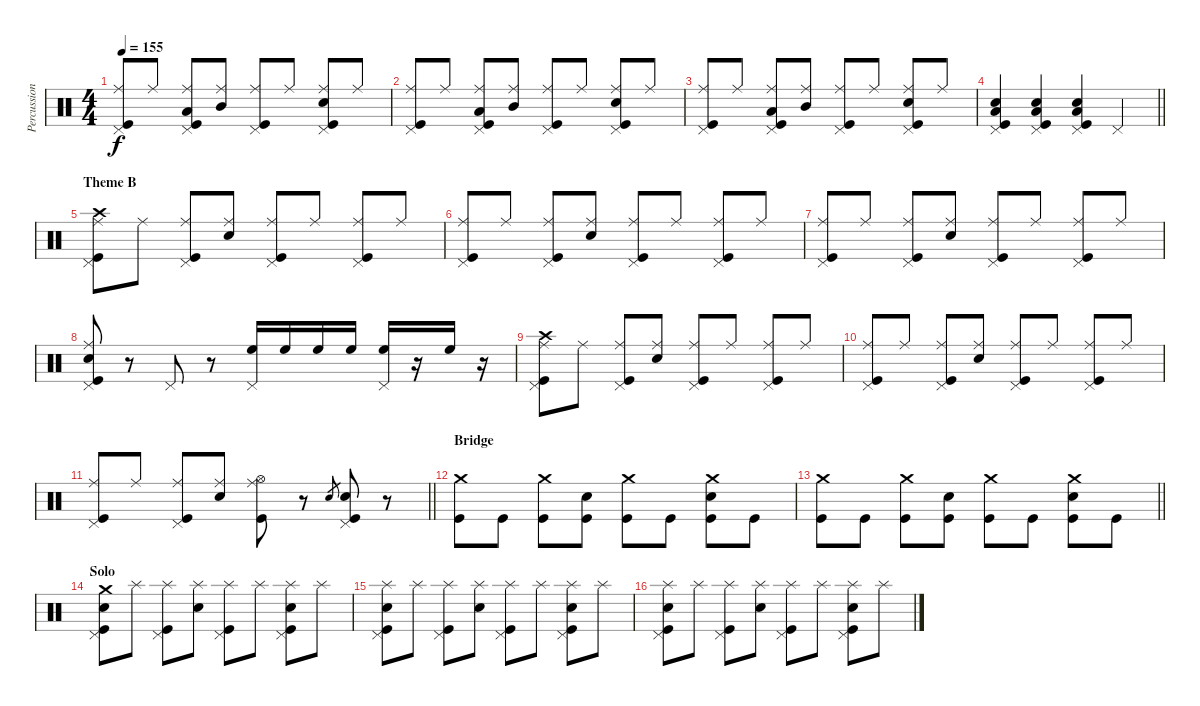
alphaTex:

\track ("Percussion" "Percussion") {instrument percussion}
\staff {score}
\articulation defaults
\ts (4 4)
\tempo 155
\clef neutral
\ks c
("Pedal Hi-Hat (hit)" "Ride (middle)" "Kick (hit)").8{dy f} "Ride (middle)".8 ("Pedal Hi-Hat (hit)" "Ride (middle)" "Low Tom (hit)" "Kick (hit)").8 ("Ride (middle)" "Mid Tom (hit)").8 ("Pedal Hi-Hat (hit)" "Ride (middle)" "Kick (hit)").8 "Ride (middle)".8 ("Pedal Hi-Hat (hit)" "Ride (middle)" "Electric Snare (hit)" "Kick (hit)").8 "Ride (middle)".8 |
("Pedal Hi-Hat (hit)" "Ride (middle)" "Kick (hit)").8 "Ride (middle)".8 ("Pedal Hi-Hat (hit)" "Ride (middle)" "Low Tom (hit)" "Kick (hit)").8 ("Ride (middle)" "Mid Tom (hit)").8 ("Pedal Hi-Hat (hit)" "Ride (middle)" "Kick (hit)").8 "Ride (middle)".8 ("Pedal Hi-Hat (hit)" "Ride (middle)" "Electric Snare (hit)" "Kick (hit)").8 "Ride (middle)".8 |
("Pedal Hi-Hat (hit)" "Ride (middle)" "Kick (hit)").8 "Ride (middle)".8 ("Pedal Hi-Hat (hit)" "Ride (middle)" "Low Tom (hit)" "Kick (hit)").8 ("Ride (middle)" "Mid Tom (hit)").8 ("Pedal Hi-Hat (hit)" "Ride (middle)" "Kick (hit)").8 "Ride (middle)".8 ("Pedal Hi-Hat (hit)" "Ride (middle)" "Electric Snare (hit)" "Kick (hit)").8 "Ride (middle)".8 |
\barLineRight lightlight
("Pedal Hi-Hat (hit)" "Electric Snare (hit)" "Low Tom (hit)" "Kick (hit)").4 ("Pedal Hi-Hat (hit)" "Electric Snare (hit)" "Low Tom (hit)" "Kick (hit)").4 ("Pedal Hi-Hat (hit)" "Electric Snare (hit)" "Low Tom (hit)" "Kick (hit)").4 "Pedal Hi-Hat (hit)".4 |
\section ("" "Theme B")
("Pedal Hi-Hat (hit)" "Ride (middle)" "Crash high (hit)" "Kick (hit)").8 "Ride (middle)".8 ("Pedal Hi-Hat (hit)" "Ride (middle)" "Kick (hit)").8 ("Ride (middle)" "Electric Snare (hit)").8 ("Pedal Hi-Hat (hit)" "Ride (middle)" "Kick (hit)").8 "Ride (middle)".8 ("Pedal Hi-Hat (hit)" "Ride (middle)" "Kick (hit)").8 "Ride (middle)".8 |
("Pedal Hi-Hat (hit)" "Ride (middle)" "Kick (hit)").8 "Ride (middle)".8 ("Pedal Hi-Hat (hit)" "Ride (middle)" "Kick (hit)").8 ("Ride (middle)" "Electric Snare (hit)").8 ("Pedal Hi-Hat (hit)" "Ride (middle)" "Kick (hit)").8 "Ride (middle)".8 ("Pedal Hi-Hat (hit)" "Ride (middle)" "Kick (hit)").8 "Ride (middle)".8 |
("Pedal Hi-Hat (hit)" "Ride (middle)" "Kick (hit)").8 "Ride (middle)".8 ("Pedal Hi-Hat (hit)" "Ride (middle)" "Kick (hit)").8 ("Ride (middle)" "Electric Snare (hit)").8 ("Pedal Hi-Hat (hit)" "Ride (middle)" "Kick (hit)").8 "Ride (middle)".8 ("Pedal Hi-Hat (hit)" "Ride (middle)" "Kick (hit)").8 "Ride (middle)".8 |
("Pedal Hi-Hat (hit)" "Ride (middle)" "Electric Snare (hit)" "Kick (hit)").8 r.8 "Pedal Hi-Hat (hit)".8 r.8 ("Pedal Hi-Hat (hit)" "High Floor Tom (hit)").16 "High Floor Tom (hit)".16 "High Floor Tom (hit)".16 "High Floor Tom (hit)".16 ("Pedal Hi-Hat (hit)" "High Floor Tom (hit)").16 r.16 "High Floor Tom (hit)".16 r.16 |
("Pedal Hi-Hat (hit)" "Ride (middle)" "Crash high (hit)" "Kick (hit)").8 "Ride (middle)".8 ("Pedal Hi-Hat (hit)" "Ride (middle)" "Kick (hit)").8 ("Ride (middle)" "Electric Snare (hit)").8 ("Pedal Hi-Hat (hit)" "Ride (middle)" "Kick (hit)").8 "Ride (middle)".8 ("Pedal Hi-Hat (hit)" "Ride (middle)" "Kick (hit)").8 "Ride (middle)".8 |
("Pedal Hi-Hat (hit)" "Ride (middle)" "Kick (hit)").8 "Ride (middle)".8 ("Pedal Hi-Hat (hit)" "Ride (middle)" "Kick (hit)").8 ("Ride (middle)" "Electric Snare (hit)").8 ("Pedal Hi-Hat (hit)" "Ride (middle)" "Kick (hit)").8 "Ride (middle)".8 ("Pedal Hi-Hat (hit)" "Ride (middle)" "Kick (hit)").8 "Ride (middle)".8 |
\barLineRight lightlight
("Pedal Hi-Hat (hit)" "Ride (middle)" "Kick (hit)").8 "Ride (middle)".8 ("Pedal Hi-Hat (hit)" "Ride (middle)" "Kick (hit)").8 ("Ride (middle)" "Electric Snare (hit)").8 ("Hi-Hat (open)" "Ride (middle)" "Kick (hit)").8 r.8 "Electric Snare (hit)".8{gr} ("Pedal Hi-Hat (hit)" "Electric Snare (hit)" "Kick (hit)").8 r.8 |
\section ("" "Bridge")
("Crash medium (hit)" "Kick (hit)").8 "Kick (hit)".8 ("Crash medium (hit)" "Kick (hit)").8 ("Electric Snare (hit)" "Kick (hit)").8 ("Crash medium (hit)" "Kick (hit)").8 "Kick (hit)".8 ("Crash medium (hit)" "Electric Snare (hit)" "Kick (hit)").8 "Kick (hit)".8 |
\barLineRight lightlight
("Crash medium (hit)" "Kick (hit)").8 "Kick (hit)".8 ("Crash medium (hit)" "Kick (hit)").8 ("Electric Snare (hit)" "Kick (hit)").8 ("Crash medium (hit)" "Kick (hit)").8 "Kick (hit)".8 ("Crash medium (hit)" "Electric Snare (hit)" "Kick (hit)").8 "Kick (hit)".8 |
\section ("" "Solo")
("Pedal Hi-Hat (hit)" "Crash medium (hit)" "Electric Snare (hit)" "Kick (hit)").8 "Splash (hit)".8 ("Pedal Hi-Hat (hit)" "Splash (hit)" "Kick (hit)").8 ("Splash (hit)" "Electric Snare (hit)").8 ("Pedal Hi-Hat (hit)" "Splash (hit)" "Kick (hit)").8 "Splash (hit)".8 ("Pedal Hi-Hat (hit)" "Splash (hit)" "Electric Snare (hit)" "Kick (hit)").8 "Splash (hit)".8 |
("Pedal Hi-Hat (hit)" "Splash (hit)" "Electric Snare (hit)" "Kick (hit)").8 "Splash (hit)".8 ("Pedal Hi-Hat (hit)" "Splash (hit)" "Kick (hit)").8 ("Splash (hit)" "Electric Snare (hit)").8 ("Pedal Hi-Hat (hit)" "Splash (hit)" "Kick (hit)").8 "Splash (hit)".8 ("Pedal Hi-Hat (hit)" "Splash (hit)" "Electric Snare (hit)" "Kick (hit)").8 "Splash (hit)".8 |
("Pedal Hi-Hat (hit)" "Splash (hit)" "Electric Snare (hit)" "Kick (hit)").8 "Splash (hit)".8 ("Pedal Hi-Hat (hit)" "Splash (hit)" "Kick (hit)").8 ("Splash (hit)" "Electric Snare (hit)").8 ("Pedal Hi-Hat (hit)" "Splash (hit)" "Kick (hit)").8 "Splash (hit)".8 ("Pedal Hi-Hat (hit)" "Splash (hit)" "Electric Snare (hit)" "Kick (hit)").8 "Splash (hit)".8
